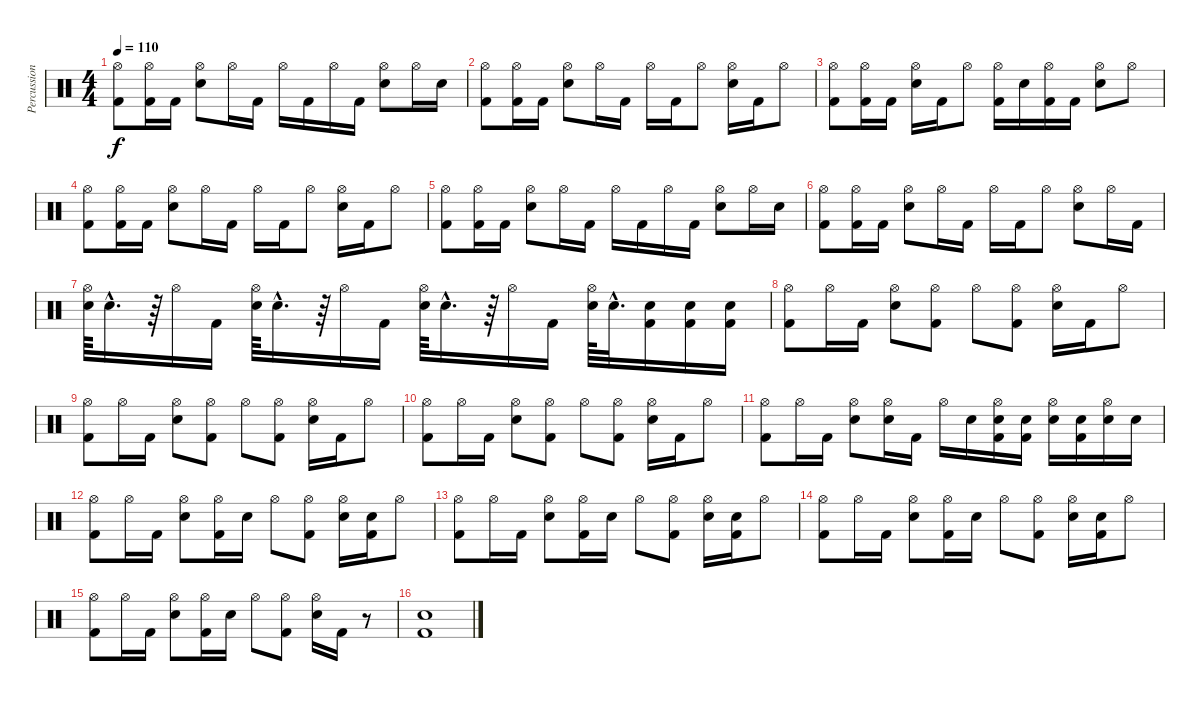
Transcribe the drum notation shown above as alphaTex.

\track ("Percussions" "Percussion") {instrument percussion}
\staff {score}
\articulation defaults
\ts (4 4)
\tempo 110
\clef neutral
\ks c
("Hi-Hat (open)" "Kick (hit) 2").8{dy f} ("Hi-Hat (open)" "Kick (hit) 2").16 "Kick (hit) 2".16 ("Electric Snare (hit)" "Hi-Hat (open)").8 "Hi-Hat (open)".16 "Kick (hit) 2".16 "Hi-Hat (open)".16 "Kick (hit) 2".16 "Hi-Hat (open)".16 "Kick (hit) 2".16 ("Electric Snare (hit)" "Hi-Hat (open)").8 "Hi-Hat (open)".16 "Electric Snare (hit)".16 |
("Hi-Hat (open)" "Kick (hit) 2").8 ("Hi-Hat (open)" "Kick (hit) 2").16 "Kick (hit) 2".16 ("Electric Snare (hit)" "Hi-Hat (open)").8 "Hi-Hat (open)".16 "Kick (hit) 2".16 "Hi-Hat (open)".16 "Kick (hit) 2".16 "Hi-Hat (open)".8 ("Electric Snare (hit)" "Hi-Hat (open)").16 "Kick (hit) 2".16 "Hi-Hat (open)".8 |
("Hi-Hat (open)" "Kick (hit) 2").8 ("Hi-Hat (open)" "Kick (hit) 2").16 "Kick (hit) 2".16 ("Electric Snare (hit)" "Hi-Hat (open)").16 "Kick (hit) 2".16 "Hi-Hat (open)".8 ("Hi-Hat (open)" "Kick (hit) 2").16 "Electric Snare (hit)".16 ("Hi-Hat (open)" "Kick (hit) 2").16 "Kick (hit) 2".16 ("Electric Snare (hit)" "Hi-Hat (open)").8 "Hi-Hat (open)".8 |
("Hi-Hat (open)" "Kick (hit) 2").8 ("Hi-Hat (open)" "Kick (hit) 2").16 "Kick (hit) 2".16 ("Electric Snare (hit)" "Hi-Hat (open)").8 "Hi-Hat (open)".16 "Kick (hit) 2".16 "Hi-Hat (open)".16 "Kick (hit) 2".16 "Hi-Hat (open)".8 ("Electric Snare (hit)" "Hi-Hat (open)").16 "Kick (hit) 2".16 "Hi-Hat (open)".8 |
("Hi-Hat (open)" "Kick (hit) 2").8 ("Hi-Hat (open)" "Kick (hit) 2").16 "Kick (hit) 2".16 ("Electric Snare (hit)" "Hi-Hat (open)").8 "Hi-Hat (open)".16 "Kick (hit) 2".16 "Hi-Hat (open)".16 "Kick (hit) 2".16 "Hi-Hat (open)".16 "Kick (hit) 2".16 ("Electric Snare (hit)" "Hi-Hat (open)").8 "Hi-Hat (open)".16 "Electric Snare (hit)".16 |
("Hi-Hat (open)" "Kick (hit) 2").8 ("Hi-Hat (open)" "Kick (hit) 2").16 "Kick (hit) 2".16 ("Electric Snare (hit)" "Hi-Hat (open)").8 "Hi-Hat (open)".16 "Kick (hit) 2".16 "Hi-Hat (open)".16 "Kick (hit) 2".16 "Hi-Hat (open)".8 ("Electric Snare (hit)" "Hi-Hat (open)").8 "Hi-Hat (open)".16 "Kick (hit) 2".16 |
("Electric Snare (hit)" "Hi-Hat (open)").64 "Electric Snare (hit)"{hac}.16{d} r.64 "Hi-Hat (open)".16 "Kick (hit) 2".16 ("Electric Snare (hit)" "Hi-Hat (open)").64 "Electric Snare (hit)"{hac}.16{d} r.64 "Hi-Hat (open)".16 "Kick (hit) 2".16 ("Electric Snare (hit)" "Hi-Hat (open)").64 "Electric Snare (hit)"{hac}.16{d} r.64 "Hi-Hat (open)".16 "Kick (hit) 2".16 ("Electric Snare (hit)" "Hi-Hat (open)").64 "Electric Snare (hit)"{hac}.32{d} ("Electric Snare (hit)" "Kick (hit) 2").16 ("Electric Snare (hit)" "Kick (hit) 2").16 ("Electric Snare (hit)" "Kick (hit) 2").16 |
("Hi-Hat (open)" "Kick (hit) 2").8 "Hi-Hat (open)".16 "Kick (hit) 2".16 ("Electric Snare (hit)" "Hi-Hat (open)").8 ("Hi-Hat (open)" "Kick (hit) 2").8 "Hi-Hat (open)".8 ("Hi-Hat (open)" "Kick (hit) 2").8 ("Electric Snare (hit)" "Hi-Hat (open)").16 "Kick (hit) 2".16 "Hi-Hat (open)".8 |
("Hi-Hat (open)" "Kick (hit) 2").8 "Hi-Hat (open)".16 "Kick (hit) 2".16 ("Electric Snare (hit)" "Hi-Hat (open)").8 ("Hi-Hat (open)" "Kick (hit) 2").8 "Hi-Hat (open)".8 ("Hi-Hat (open)" "Kick (hit) 2").8 ("Electric Snare (hit)" "Hi-Hat (open)").16 "Kick (hit) 2".16 "Hi-Hat (open)".8 |
("Hi-Hat (open)" "Kick (hit) 2").8 "Hi-Hat (open)".16 "Kick (hit) 2".16 ("Electric Snare (hit)" "Hi-Hat (open)").8 ("Hi-Hat (open)" "Kick (hit) 2").8 "Hi-Hat (open)".8 ("Hi-Hat (open)" "Kick (hit) 2").8 ("Electric Snare (hit)" "Hi-Hat (open)").16 "Kick (hit) 2".16 "Hi-Hat (open)".8 |
("Hi-Hat (open)" "Kick (hit) 2").8 "Hi-Hat (open)".16 "Kick (hit) 2".16 ("Electric Snare (hit)" "Hi-Hat (open)").8 ("Electric Snare (hit)" "Hi-Hat (open)").16 "Kick (hit) 2".16 "Hi-Hat (open)".16 "Electric Snare (hit)".16 ("Electric Snare (hit)" "Hi-Hat (open)" "Kick (hit) 2").16 ("Electric Snare (hit)" "Kick (hit) 2").16 ("Electric Snare (hit)" "Hi-Hat (open)").16 ("Electric Snare (hit)" "Kick (hit) 2").16 ("Electric Snare (hit)" "Hi-Hat (open)").16 "Electric Snare (hit)".16 |
("Hi-Hat (open)" "Kick (hit) 2").8 "Hi-Hat (open)".16 "Kick (hit) 2".16 ("Electric Snare (hit)" "Hi-Hat (open)").8 ("Hi-Hat (open)" "Kick (hit) 2").16 "Electric Snare (hit)".16 "Hi-Hat (open)".8 ("Hi-Hat (open)" "Kick (hit) 2").8 ("Electric Snare (hit)" "Hi-Hat (open)").16 ("Electric Snare (hit)" "Kick (hit) 2").16 "Hi-Hat (open)".8 |
("Hi-Hat (open)" "Kick (hit) 2").8 "Hi-Hat (open)".16 "Kick (hit) 2".16 ("Electric Snare (hit)" "Hi-Hat (open)").8 ("Hi-Hat (open)" "Kick (hit) 2").16 "Electric Snare (hit)".16 "Hi-Hat (open)".8 ("Hi-Hat (open)" "Kick (hit) 2").8 ("Electric Snare (hit)" "Hi-Hat (open)").16 ("Electric Snare (hit)" "Kick (hit) 2").16 "Hi-Hat (open)".8 |
("Hi-Hat (open)" "Kick (hit) 2").8 "Hi-Hat (open)".16 "Kick (hit) 2".16 ("Electric Snare (hit)" "Hi-Hat (open)").8 ("Hi-Hat (open)" "Kick (hit) 2").16 "Electric Snare (hit)".16 "Hi-Hat (open)".8 ("Hi-Hat (open)" "Kick (hit) 2").8 ("Electric Snare (hit)" "Hi-Hat (open)").16 ("Electric Snare (hit)" "Kick (hit) 2").16 "Hi-Hat (open)".8 |
("Hi-Hat (open)" "Kick (hit) 2").8 "Hi-Hat (open)".16 "Kick (hit) 2".16 ("Electric Snare (hit)" "Hi-Hat (open)").8 ("Hi-Hat (open)" "Kick (hit) 2").16 "Electric Snare (hit)".16 "Hi-Hat (open)".8 ("Hi-Hat (open)" "Kick (hit) 2").8 ("Electric Snare (hit)" "Hi-Hat (open)").16 "Kick (hit) 2".16 r.8 |
("Electric Snare (hit)" "Kick (hit) 2").1
